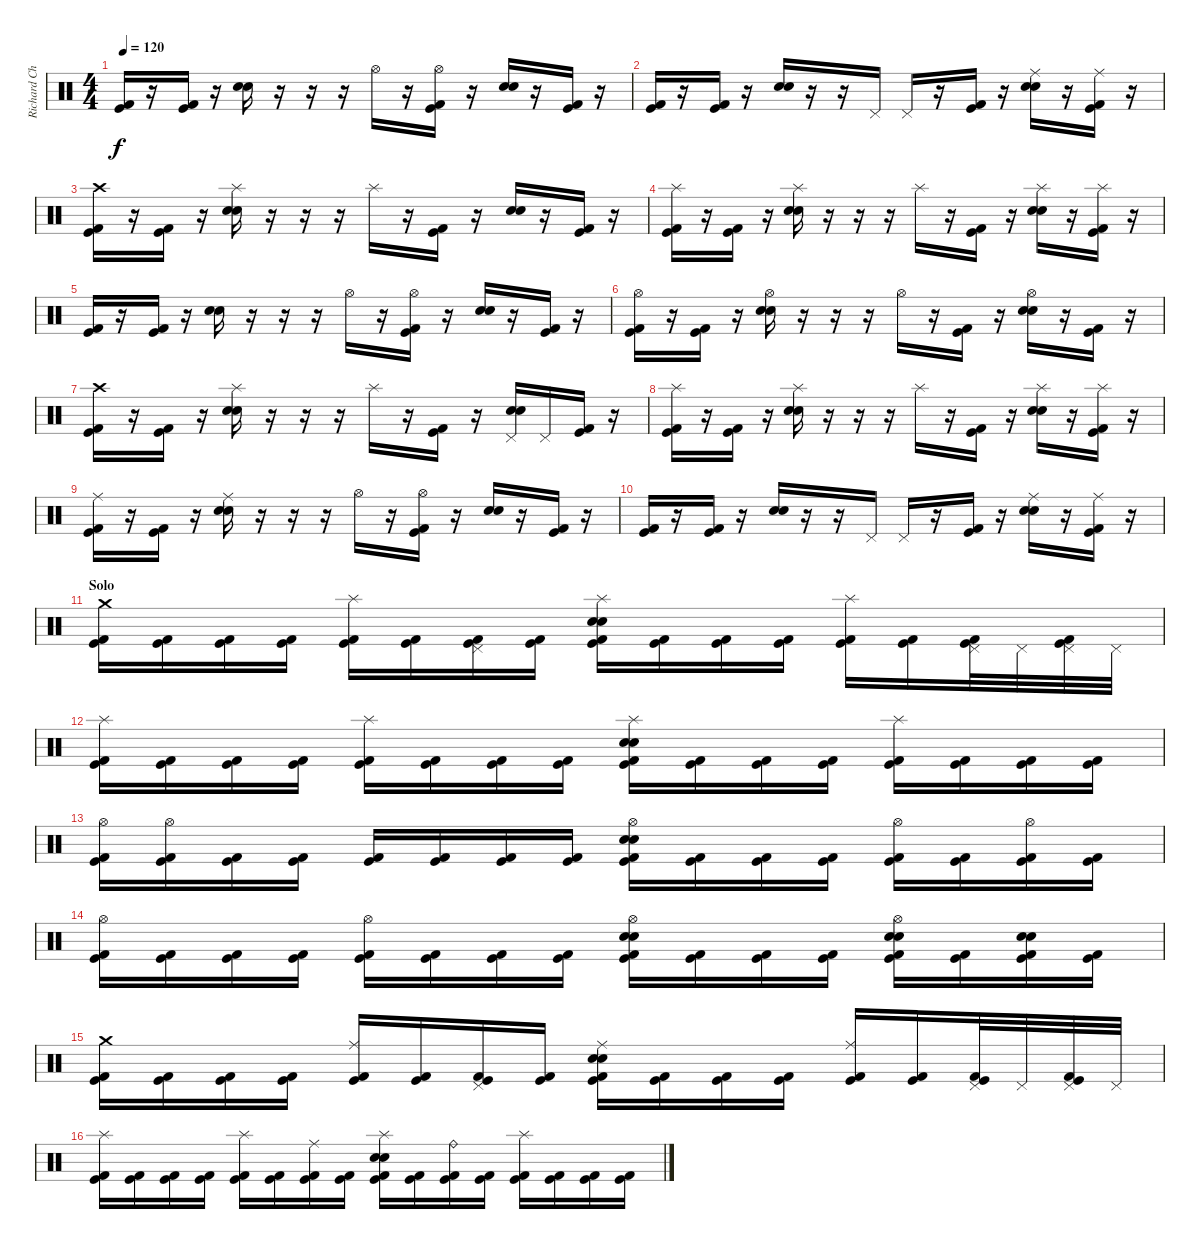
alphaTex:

\track ("Richard Christy" "Richard Ch") {instrument percussion}
\staff {score}
\articulation defaults
\ts (4 4)
\tempo 120
\clef neutral
\ks c
("Kick (hit)" "Kick (hit) 2").16{dy f} r.16 ("Kick (hit)" "Kick (hit) 2").16 r.16 ("Electric Snare (hit)" "Snare (hit) 2").16 r.16 r.16 r.16 "Hi-Hat (open)".16 r.16 ("Hi-Hat (open)" "Kick (hit)" "Kick (hit) 2").16 r.16 ("Electric Snare (hit)" "Snare (hit) 2").16 r.16 ("Kick (hit)" "Kick (hit) 2").16 r.16 |
("Kick (hit)" "Kick (hit) 2").16 r.16 ("Kick (hit)" "Kick (hit) 2").16 r.16 ("Electric Snare (hit)" "Snare (hit) 2").16 r.16 r.16 "Pedal Hi-Hat (hit)".16 "Pedal Hi-Hat (hit)".16 r.16 ("Kick (hit)" "Kick (hit) 2").16 r.16 ("Ride (middle)" "Electric Snare (hit)" "Snare (hit) 2").16 r.16 ("Ride (middle)" "Kick (hit)" "Kick (hit) 2").16 r.16 |
("Crash high (hit)" "Kick (hit)" "Kick (hit) 2").16 r.16 ("Kick (hit)" "Kick (hit) 2").16 r.16 ("Splash (hit)" "Electric Snare (hit)" "Snare (hit) 2").16 r.16 r.16 r.16 "Splash (hit)".16 r.16 ("Kick (hit)" "Kick (hit) 2").16 r.16 ("Electric Snare (hit)" "Snare (hit) 2").16 r.16 ("Kick (hit)" "Kick (hit) 2").16 r.16 |
("Splash (hit)" "Kick (hit)" "Kick (hit) 2").16 r.16 ("Kick (hit)" "Kick (hit) 2").16 r.16 ("Splash (hit)" "Electric Snare (hit)" "Snare (hit) 2").16 r.16 r.16 r.16 "Splash (hit)".16 r.16 ("Kick (hit)" "Kick (hit) 2").16 r.16 ("Splash (hit)" "Electric Snare (hit)" "Snare (hit) 2").16 r.16 ("Splash (hit)" "Kick (hit)" "Kick (hit) 2").16 r.16 |
("Kick (hit)" "Kick (hit) 2").16 r.16 ("Kick (hit)" "Kick (hit) 2").16 r.16 ("Electric Snare (hit)" "Snare (hit) 2").16 r.16 r.16 r.16 "Hi-Hat (open)".16 r.16 ("Hi-Hat (open)" "Kick (hit)" "Kick (hit) 2").16 r.16 ("Electric Snare (hit)" "Snare (hit) 2").16 r.16 ("Kick (hit)" "Kick (hit) 2").16 r.16 |
("Hi-Hat (open)" "Kick (hit)" "Kick (hit) 2").16 r.16 ("Kick (hit)" "Kick (hit) 2").16 r.16 ("Hi-Hat (open)" "Electric Snare (hit)" "Snare (hit) 2").16 r.16 r.16 r.16 "Hi-Hat (open)".16 r.16 ("Kick (hit)" "Kick (hit) 2").16 r.16 ("Hi-Hat (open)" "Electric Snare (hit)" "Snare (hit) 2").16 r.16 ("Kick (hit)" "Kick (hit) 2").16 r.16 |
("Crash high (hit)" "Kick (hit)" "Kick (hit) 2").16 r.16 ("Kick (hit)" "Kick (hit) 2").16 r.16 ("Splash (hit)" "Electric Snare (hit)" "Snare (hit) 2").16 r.16 r.16 r.16 "Splash (hit)".16 r.16 ("Kick (hit)" "Kick (hit) 2").16 r.16 ("Pedal Hi-Hat (hit)" "Electric Snare (hit)" "Snare (hit) 2").16 "Pedal Hi-Hat (hit)".16 ("Kick (hit)" "Kick (hit) 2").16 r.16 |
("Splash (hit)" "Kick (hit)" "Kick (hit) 2").16 r.16 ("Kick (hit)" "Kick (hit) 2").16 r.16 ("Splash (hit)" "Electric Snare (hit)" "Snare (hit) 2").16 r.16 r.16 r.16 "Splash (hit)".16 r.16 ("Kick (hit)" "Kick (hit) 2").16 r.16 ("Splash (hit)" "Electric Snare (hit)" "Snare (hit) 2").16 r.16 ("Splash (hit)" "Kick (hit)" "Kick (hit) 2").16 r.16 |
("Ride (middle)" "Kick (hit)" "Kick (hit) 2").16 r.16 ("Kick (hit)" "Kick (hit) 2").16 r.16 ("Ride (middle)" "Electric Snare (hit)" "Snare (hit) 2").16 r.16 r.16 r.16 "Hi-Hat (open)".16 r.16 ("Hi-Hat (open)" "Kick (hit)" "Kick (hit) 2").16 r.16 ("Electric Snare (hit)" "Snare (hit) 2").16 r.16 ("Kick (hit)" "Kick (hit) 2").16 r.16 |
("Kick (hit)" "Kick (hit) 2").16 r.16 ("Kick (hit)" "Kick (hit) 2").16 r.16 ("Electric Snare (hit)" "Snare (hit) 2").16 r.16 r.16 "Pedal Hi-Hat (hit)".16 "Pedal Hi-Hat (hit)".16 r.16 ("Kick (hit)" "Kick (hit) 2").16 r.16 ("Ride (middle)" "Electric Snare (hit)" "Snare (hit) 2").16 r.16 ("Ride (middle)" "Kick (hit)" "Kick (hit) 2").16 r.16 |
\section ("" "Solo")
("Crash medium (hit)" "Kick (hit)" "Kick (hit) 2").16 ("Kick (hit)" "Kick (hit) 2").16 ("Kick (hit)" "Kick (hit) 2").16 ("Kick (hit)" "Kick (hit) 2").16 ("Splash (hit)" "Kick (hit)" "Kick (hit) 2").16 ("Kick (hit)" "Kick (hit) 2").16 ("Pedal Hi-Hat (hit)" "Kick (hit)" "Kick (hit) 2").16 ("Kick (hit)" "Kick (hit) 2").16 ("Splash (hit)" "Snare (hit) 2" "Electric Snare (hit)" "Kick (hit)" "Kick (hit) 2").16 ("Kick (hit)" "Kick (hit) 2").16 ("Kick (hit)" "Kick (hit) 2").16 ("Kick (hit)" "Kick (hit) 2").16 ("Splash (hit)" "Kick (hit)" "Kick (hit) 2").16 ("Kick (hit)" "Kick (hit) 2").16 ("Pedal Hi-Hat (hit)" "Kick (hit)" "Kick (hit) 2").32 "Pedal Hi-Hat (hit)".32 ("Pedal Hi-Hat (hit)" "Kick (hit)" "Kick (hit) 2").32 "Pedal Hi-Hat (hit)".32 |
("Splash (hit)" "Kick (hit)" "Kick (hit) 2").16 ("Kick (hit)" "Kick (hit) 2").16 ("Kick (hit)" "Kick (hit) 2").16 ("Kick (hit)" "Kick (hit) 2").16 ("Splash (hit)" "Kick (hit)" "Kick (hit) 2").16 ("Kick (hit)" "Kick (hit) 2").16 ("Kick (hit)" "Kick (hit) 2").16 ("Kick (hit)" "Kick (hit) 2").16 ("Splash (hit)" "Snare (hit) 2" "Electric Snare (hit)" "Kick (hit)" "Kick (hit) 2").16 ("Kick (hit)" "Kick (hit) 2").16 ("Kick (hit)" "Kick (hit) 2").16 ("Kick (hit)" "Kick (hit) 2").16 ("Splash (hit)" "Kick (hit)" "Kick (hit) 2").16 ("Kick (hit)" "Kick (hit) 2").16 ("Kick (hit)" "Kick (hit) 2").16 ("Kick (hit)" "Kick (hit) 2").16 |
("Hi-Hat (open)" "Kick (hit)" "Kick (hit) 2").16 ("Hi-Hat (open)" "Kick (hit)" "Kick (hit) 2").16 ("Kick (hit)" "Kick (hit) 2").16 ("Kick (hit)" "Kick (hit) 2").16 ("Kick (hit)" "Kick (hit) 2").16 ("Kick (hit)" "Kick (hit) 2").16 ("Kick (hit)" "Kick (hit) 2").16 ("Kick (hit)" "Kick (hit) 2").16 ("Hi-Hat (open)" "Snare (hit) 2" "Electric Snare (hit)" "Kick (hit)" "Kick (hit) 2").16 ("Kick (hit)" "Kick (hit) 2").16 ("Kick (hit)" "Kick (hit) 2").16 ("Kick (hit)" "Kick (hit) 2").16 ("Hi-Hat (open)" "Kick (hit)" "Kick (hit) 2").16 ("Kick (hit)" "Kick (hit) 2").16 ("Hi-Hat (open)" "Kick (hit)" "Kick (hit) 2").16 ("Kick (hit)" "Kick (hit) 2").16 |
("Hi-Hat (open)" "Kick (hit)" "Kick (hit) 2").16 ("Kick (hit)" "Kick (hit) 2").16 ("Kick (hit)" "Kick (hit) 2").16 ("Kick (hit)" "Kick (hit) 2").16 ("Hi-Hat (open)" "Kick (hit)" "Kick (hit) 2").16 ("Kick (hit)" "Kick (hit) 2").16 ("Kick (hit)" "Kick (hit) 2").16 ("Kick (hit)" "Kick (hit) 2").16 ("Hi-Hat (open)" "Snare (hit) 2" "Electric Snare (hit)" "Kick (hit)" "Kick (hit) 2").16 ("Kick (hit)" "Kick (hit) 2").16 ("Kick (hit)" "Kick (hit) 2").16 ("Kick (hit)" "Kick (hit) 2").16 ("Hi-Hat (open)" "Electric Snare (hit)" "Snare (hit) 2" "Kick (hit)" "Kick (hit) 2").16 ("Kick (hit)" "Kick (hit) 2").16 ("Electric Snare (hit)" "Snare (hit) 2" "Kick (hit)" "Kick (hit) 2").16 ("Kick (hit)" "Kick (hit) 2").16 |
("Crash medium (hit)" "Kick (hit)" "Kick (hit) 2").16 ("Kick (hit)" "Kick (hit) 2").16 ("Kick (hit)" "Kick (hit) 2").16 ("Kick (hit)" "Kick (hit) 2").16 ("Ride (middle)" "Kick (hit)" "Kick (hit) 2").16 ("Kick (hit)" "Kick (hit) 2").16 ("Pedal Hi-Hat (hit)" "Kick (hit)" "Kick (hit) 2").16 ("Kick (hit)" "Kick (hit) 2").16 ("Ride (middle)" "Snare (hit) 2" "Electric Snare (hit)" "Kick (hit)" "Kick (hit) 2").16 ("Kick (hit)" "Kick (hit) 2").16 ("Kick (hit)" "Kick (hit) 2").16 ("Kick (hit)" "Kick (hit) 2").16 ("Ride (middle)" "Kick (hit)" "Kick (hit) 2").16 ("Kick (hit)" "Kick (hit) 2").16 ("Pedal Hi-Hat (hit)" "Kick (hit)" "Kick (hit) 2").32 "Pedal Hi-Hat (hit)".32 ("Pedal Hi-Hat (hit)" "Kick (hit)" "Kick (hit) 2").32 "Pedal Hi-Hat (hit)".32 |
("Splash (hit)" "Kick (hit)" "Kick (hit) 2").16 ("Kick (hit)" "Kick (hit) 2").16 ("Kick (hit)" "Kick (hit) 2").16 ("Kick (hit)" "Kick (hit) 2").16 ("Splash (hit)" "Kick (hit)" "Kick (hit) 2").16 ("Kick (hit)" "Kick (hit) 2").16 ("Ride (middle)" "Kick (hit)" "Kick (hit) 2").16 ("Kick (hit)" "Kick (hit) 2").16 ("Splash (hit)" "Snare (hit) 2" "Electric Snare (hit)" "Kick (hit)" "Kick (hit) 2").16 ("Kick (hit)" "Kick (hit) 2").16 ("Ride (bell)" "Kick (hit)" "Kick (hit) 2").16 ("Kick (hit)" "Kick (hit) 2").16 ("Splash (hit)" "Kick (hit)" "Kick (hit) 2").16 ("Kick (hit)" "Kick (hit) 2").16 ("Kick (hit)" "Kick (hit) 2").16 ("Kick (hit)" "Kick (hit) 2").16
